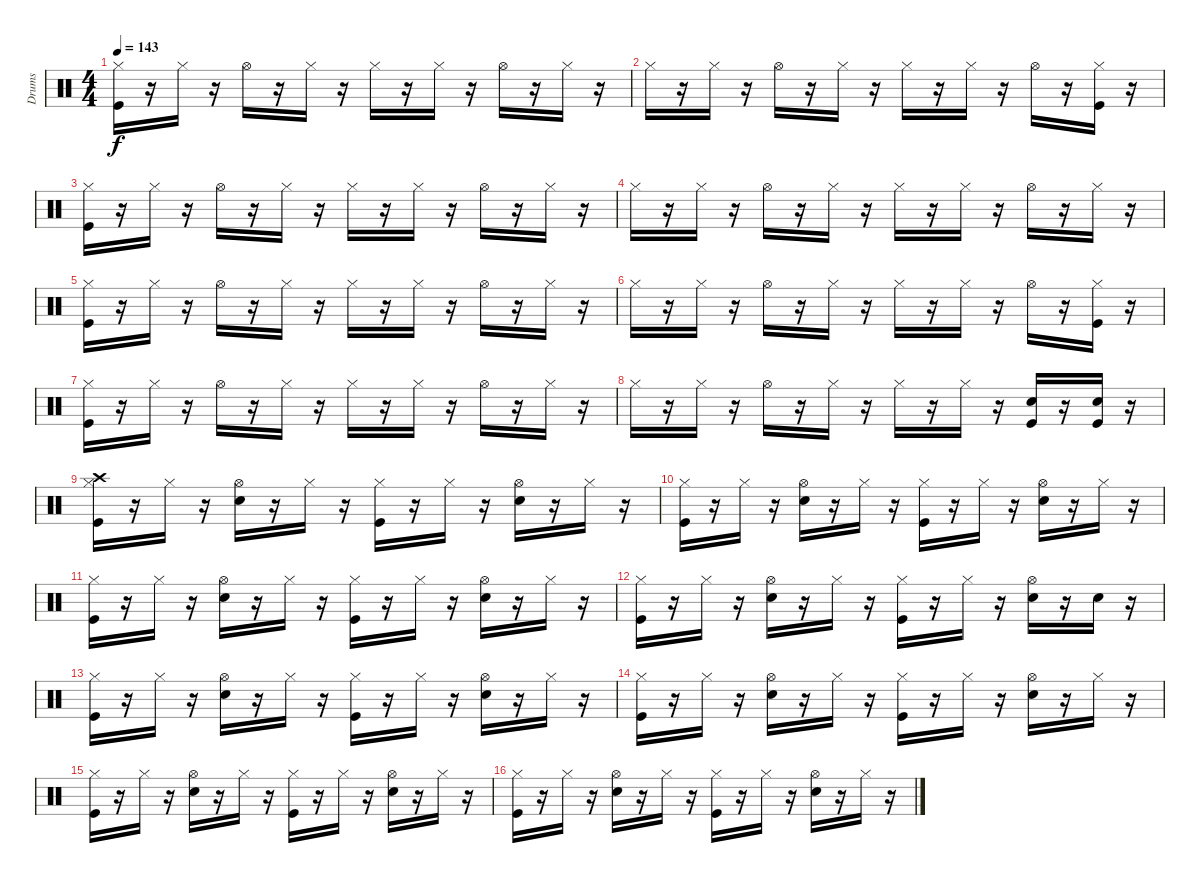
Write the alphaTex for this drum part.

\track ("Drums" "Drums") {instrument percussion}
\staff {score}
\articulation defaults
\ts (4 4)
\tempo 143
\clef neutral
\ks c
("Hi-Hat (closed)" "Kick (hit)").16{dy f} r.16 "Hi-Hat (closed)".16 r.16 "Hi-Hat (open)".16 r.16 "Hi-Hat (closed)".16 r.16 "Hi-Hat (closed)".16 r.16 "Hi-Hat (closed)".16 r.16 "Hi-Hat (open)".16 r.16 "Hi-Hat (closed)".16 r.16 |
"Hi-Hat (closed)".16 r.16 "Hi-Hat (closed)".16 r.16 "Hi-Hat (open)".16 r.16 "Hi-Hat (closed)".16 r.16 "Hi-Hat (closed)".16 r.16 "Hi-Hat (closed)".16 r.16 "Hi-Hat (open)".16 r.16 ("Hi-Hat (closed)" "Kick (hit)").16 r.16 |
("Hi-Hat (closed)" "Kick (hit)").16 r.16 "Hi-Hat (closed)".16 r.16 "Hi-Hat (open)".16 r.16 "Hi-Hat (closed)".16 r.16 "Hi-Hat (closed)".16 r.16 "Hi-Hat (closed)".16 r.16 "Hi-Hat (open)".16 r.16 "Hi-Hat (closed)".16 r.16 |
"Hi-Hat (closed)".16 r.16 "Hi-Hat (closed)".16 r.16 "Hi-Hat (open)".16 r.16 "Hi-Hat (closed)".16 r.16 "Hi-Hat (closed)".16 r.16 "Hi-Hat (closed)".16 r.16 "Hi-Hat (open)".16 r.16 "Hi-Hat (closed)".16 r.16 |
("Hi-Hat (closed)" "Kick (hit)").16 r.16 "Hi-Hat (closed)".16 r.16 "Hi-Hat (open)".16 r.16 "Hi-Hat (closed)".16 r.16 "Hi-Hat (closed)".16 r.16 "Hi-Hat (closed)".16 r.16 "Hi-Hat (open)".16 r.16 "Hi-Hat (closed)".16 r.16 |
"Hi-Hat (closed)".16 r.16 "Hi-Hat (closed)".16 r.16 "Hi-Hat (open)".16 r.16 "Hi-Hat (closed)".16 r.16 "Hi-Hat (closed)".16 r.16 "Hi-Hat (closed)".16 r.16 "Hi-Hat (open)".16 r.16 ("Hi-Hat (closed)" "Kick (hit)").16 r.16 |
("Hi-Hat (closed)" "Kick (hit)").16 r.16 "Hi-Hat (closed)".16 r.16 "Hi-Hat (open)".16 r.16 "Hi-Hat (closed)".16 r.16 "Hi-Hat (closed)".16 r.16 "Hi-Hat (closed)".16 r.16 "Hi-Hat (open)".16 r.16 "Hi-Hat (closed)".16 r.16 |
"Hi-Hat (closed)".16 r.16 "Hi-Hat (closed)".16 r.16 "Hi-Hat (open)".16 r.16 "Hi-Hat (closed)".16 r.16 "Hi-Hat (closed)".16 r.16 "Hi-Hat (closed)".16 r.16 ("Kick (hit)" "Snare (hit) 2").16 r.16 ("Kick (hit)" "Snare (hit) 2").16 r.16 |
("Hi-Hat (closed)" "Kick (hit)" "Crash high (hit)").16 r.16 "Hi-Hat (closed)".16 r.16 ("Hi-Hat (open)" "Snare (hit) 2").16 r.16 "Hi-Hat (closed)".16 r.16 ("Hi-Hat (closed)" "Kick (hit)").16 r.16 "Hi-Hat (closed)".16 r.16 ("Hi-Hat (open)" "Snare (hit) 2").16 r.16 "Hi-Hat (closed)".16 r.16 |
("Hi-Hat (closed)" "Kick (hit)").16 r.16 "Hi-Hat (closed)".16 r.16 ("Hi-Hat (open)" "Snare (hit) 2").16 r.16 "Hi-Hat (closed)".16 r.16 ("Hi-Hat (closed)" "Kick (hit)").16 r.16 "Hi-Hat (closed)".16 r.16 ("Hi-Hat (open)" "Snare (hit) 2").16 r.16 "Hi-Hat (closed)".16 r.16 |
("Hi-Hat (closed)" "Kick (hit)").16 r.16 "Hi-Hat (closed)".16 r.16 ("Hi-Hat (open)" "Snare (hit) 2").16 r.16 "Hi-Hat (closed)".16 r.16 ("Hi-Hat (closed)" "Kick (hit)").16 r.16 "Hi-Hat (closed)".16 r.16 ("Hi-Hat (open)" "Snare (hit) 2").16 r.16 "Hi-Hat (closed)".16 r.16 |
("Hi-Hat (closed)" "Kick (hit)").16 r.16 "Hi-Hat (closed)".16 r.16 ("Hi-Hat (open)" "Snare (hit) 2").16 r.16 "Hi-Hat (closed)".16 r.16 ("Hi-Hat (closed)" "Kick (hit)").16 r.16 "Hi-Hat (closed)".16 r.16 ("Hi-Hat (open)" "Snare (hit) 2").16 r.16 "Snare (hit) 2".16 r.16 |
("Hi-Hat (closed)" "Kick (hit)").16 r.16 "Hi-Hat (closed)".16 r.16 ("Hi-Hat (open)" "Snare (hit) 2").16 r.16 "Hi-Hat (closed)".16 r.16 ("Hi-Hat (closed)" "Kick (hit)").16 r.16 "Hi-Hat (closed)".16 r.16 ("Hi-Hat (open)" "Snare (hit) 2").16 r.16 "Hi-Hat (closed)".16 r.16 |
("Hi-Hat (closed)" "Kick (hit)").16 r.16 "Hi-Hat (closed)".16 r.16 ("Hi-Hat (open)" "Snare (hit) 2").16 r.16 "Hi-Hat (closed)".16 r.16 ("Hi-Hat (closed)" "Kick (hit)").16 r.16 "Hi-Hat (closed)".16 r.16 ("Hi-Hat (open)" "Snare (hit) 2").16 r.16 "Hi-Hat (closed)".16 r.16 |
("Hi-Hat (closed)" "Kick (hit)").16 r.16 "Hi-Hat (closed)".16 r.16 ("Hi-Hat (open)" "Snare (hit) 2").16 r.16 "Hi-Hat (closed)".16 r.16 ("Hi-Hat (closed)" "Kick (hit)").16 r.16 "Hi-Hat (closed)".16 r.16 ("Hi-Hat (open)" "Snare (hit) 2").16 r.16 "Hi-Hat (closed)".16 r.16 |
("Hi-Hat (closed)" "Kick (hit)").16 r.16 "Hi-Hat (closed)".16 r.16 ("Hi-Hat (open)" "Snare (hit) 2").16 r.16 "Hi-Hat (closed)".16 r.16 ("Hi-Hat (closed)" "Kick (hit)").16 r.16 "Hi-Hat (closed)".16 r.16 ("Hi-Hat (open)" "Snare (hit) 2").16 r.16 "Hi-Hat (closed)".16 r.16
